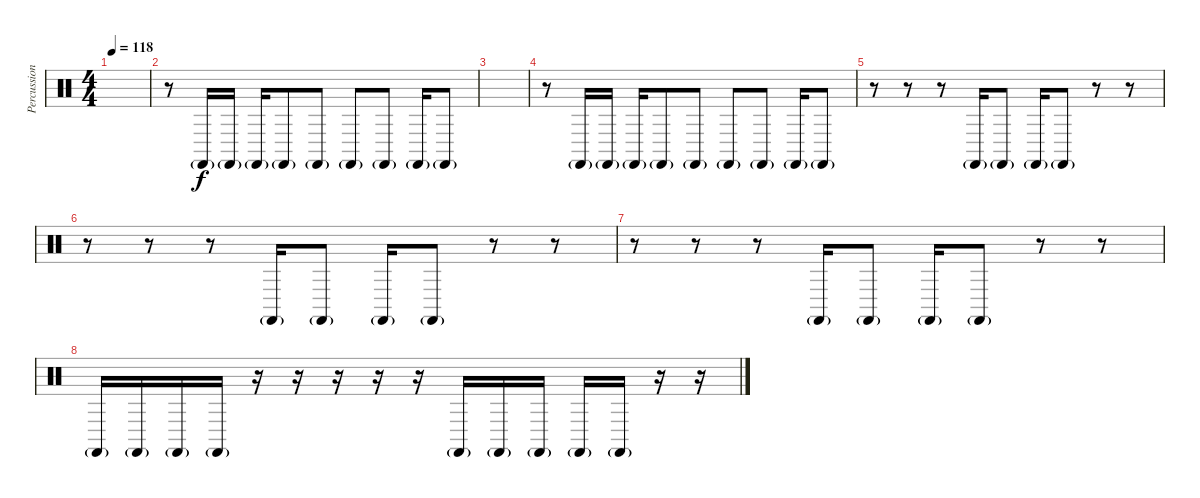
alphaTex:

\track ("Percussion" "Percussion") {instrument percussion}
\staff {score}
\articulation defaults
\ts (4 4)
\tempo 118
\clef neutral
\ks c
|
r.8 "Castanets (hit)"{g}.16 "Castanets (hit)"{g}.16 "Castanets (hit)"{g}.16 "Castanets (hit)"{g}.8 "Castanets (hit)"{g}.8 "Castanets (hit)"{g}.8 "Castanets (hit)"{g}.8 "Castanets (hit)"{g}.16 "Castanets (hit)"{g}.8 |
|
r.8 "Castanets (hit)"{g}.16 "Castanets (hit)"{g}.16 "Castanets (hit)"{g}.16 "Castanets (hit)"{g}.8 "Castanets (hit)"{g}.8 "Castanets (hit)"{g}.8 "Castanets (hit)"{g}.8 "Castanets (hit)"{g}.16 "Castanets (hit)"{g}.8 |
r.8 r.8 r.8 "Castanets (hit)"{g}.16 "Castanets (hit)"{g}.8 "Castanets (hit)"{g}.16 "Castanets (hit)"{g}.8 r.8 r.8 |
r.8 r.8 r.8 "Castanets (hit)"{g}.16 "Castanets (hit)"{g}.8 "Castanets (hit)"{g}.16 "Castanets (hit)"{g}.8 r.8 r.8 |
r.8 r.8 r.8 "Castanets (hit)"{g}.16 "Castanets (hit)"{g}.8 "Castanets (hit)"{g}.16 "Castanets (hit)"{g}.8 r.8 r.8 |
"Castanets (hit)"{g}.16 "Castanets (hit)"{g}.16 "Castanets (hit)"{g}.16 "Castanets (hit)"{g}.16 r.16 r.16 r.16 r.16 r.16 "Castanets (hit)"{g}.16 "Castanets (hit)"{g}.16 "Castanets (hit)"{g}.16 "Castanets (hit)"{g}.16 "Castanets (hit)"{g}.16 r.16 r.16
